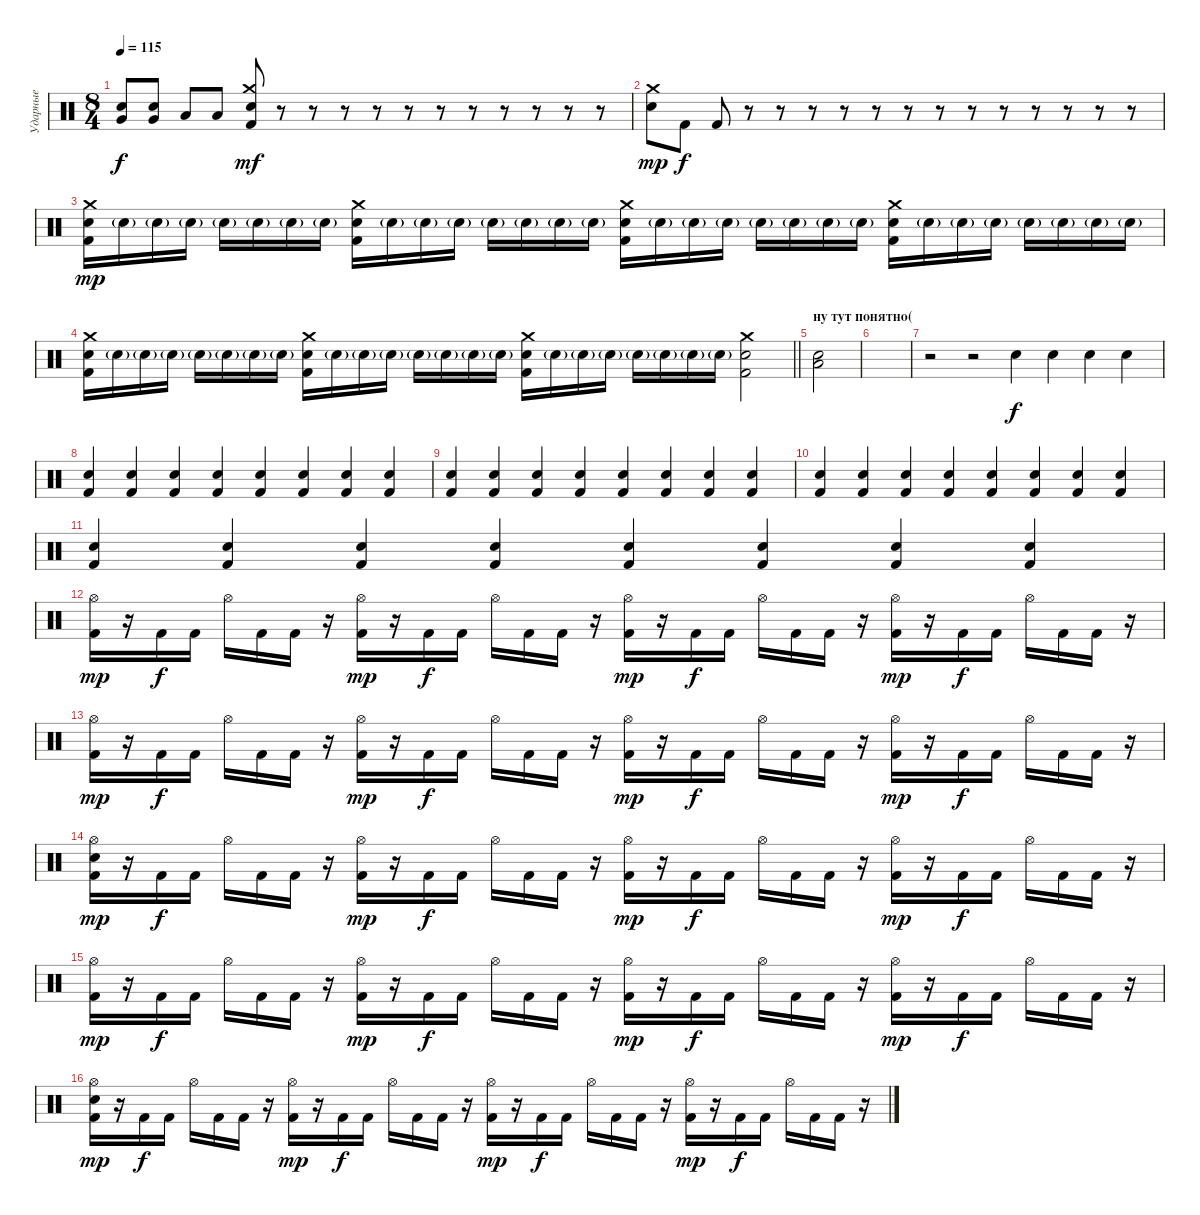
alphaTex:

\track ("Ударные" "Ударные") {instrument percussion}
\staff {score}
\articulation defaults
\ts (8 4)
\tempo 115
\clef neutral
\ks c
("Very Low Tom (hit)" "Snare (hit) 2").8{dy f} ("Very Low Tom (hit)" "Snare (hit) 2").8 "Low Floor Tom (hit)".8 "Low Floor Tom (hit)".8 ("Crash medium (hit)" "Snare (hit) 2" "Kick (hit) 2").8{dy mf} r.8 r.8 r.8 r.8 r.8 r.8 r.8 r.8 r.8 r.8 r.8 |
("Crash medium (hit)" "Snare (hit) 2").8{dy mp} "Kick (hit) 2".8{dy f} "Kick (hit) 2".8 r.8 r.8 r.8 r.8 r.8 r.8 r.8 r.8 r.8 r.8 r.8 r.8 r.8 |
("Crash medium (hit)" "Electric Snare (hit)" "Kick (hit) 2").16{dy mp} "Electric Snare (hit)"{g}.16 "Electric Snare (hit)"{g}.16 "Electric Snare (hit)"{g}.16 "Electric Snare (hit)"{g}.16 "Electric Snare (hit)"{g}.16 "Electric Snare (hit)"{g}.16 "Electric Snare (hit)"{g}.16 ("Crash medium (hit)" "Electric Snare (hit)" "Kick (hit) 2").16 "Electric Snare (hit)"{g}.16 "Electric Snare (hit)"{g}.16 "Electric Snare (hit)"{g}.16 "Electric Snare (hit)"{g}.16 "Electric Snare (hit)"{g}.16 "Electric Snare (hit)"{g}.16 "Electric Snare (hit)"{g}.16 ("Crash medium (hit)" "Electric Snare (hit)" "Kick (hit) 2").16 "Electric Snare (hit)"{g}.16 "Electric Snare (hit)"{g}.16 "Electric Snare (hit)"{g}.16 "Electric Snare (hit)"{g}.16 "Electric Snare (hit)"{g}.16 "Electric Snare (hit)"{g}.16 "Electric Snare (hit)"{g}.16 ("Crash medium (hit)" "Electric Snare (hit)" "Kick (hit) 2").16 "Electric Snare (hit)"{g}.16 "Electric Snare (hit)"{g}.16 "Electric Snare (hit)"{g}.16 "Electric Snare (hit)"{g}.16 "Electric Snare (hit)"{g}.16 "Electric Snare (hit)"{g}.16 "Electric Snare (hit)"{g}.16 |
\barLineRight lightlight
("Crash medium (hit)" "Electric Snare (hit)" "Kick (hit) 2").16 "Electric Snare (hit)"{g}.16 "Electric Snare (hit)"{g}.16 "Electric Snare (hit)"{g}.16 "Electric Snare (hit)"{g}.16 "Electric Snare (hit)"{g}.16 "Electric Snare (hit)"{g}.16 "Electric Snare (hit)"{g}.16 ("Crash medium (hit)" "Electric Snare (hit)" "Kick (hit) 2").16 "Electric Snare (hit)"{g}.16 "Electric Snare (hit)"{g}.16 "Electric Snare (hit)"{g}.16 "Electric Snare (hit)"{g}.16 "Electric Snare (hit)"{g}.16 "Electric Snare (hit)"{g}.16 "Electric Snare (hit)"{g}.16 ("Crash medium (hit)" "Electric Snare (hit)" "Kick (hit) 2").16 "Electric Snare (hit)"{g}.16 "Electric Snare (hit)"{g}.16 "Electric Snare (hit)"{g}.16 "Electric Snare (hit)"{g}.16 "Electric Snare (hit)"{g}.16 "Electric Snare (hit)"{g}.16 "Electric Snare (hit)"{g}.16 ("Crash medium (hit)" "Electric Snare (hit)" "Kick (hit) 2").2 |
\section ("" "ну тут понятно(")
("Low Floor Tom (hit)" "Electric Snare (hit)").2 |
|
r.2 r.2 "Hand Clap (hit)".4{dy f} "Hand Clap (hit)".4 "Hand Clap (hit)".4 "Hand Clap (hit)".4 |
("Hand Clap (hit)" "Kick (hit) 2").4 ("Hand Clap (hit)" "Kick (hit) 2").4 ("Hand Clap (hit)" "Kick (hit) 2").4 ("Hand Clap (hit)" "Kick (hit) 2").4 ("Hand Clap (hit)" "Kick (hit) 2").4 ("Hand Clap (hit)" "Kick (hit) 2").4 ("Hand Clap (hit)" "Kick (hit) 2").4 ("Hand Clap (hit)" "Kick (hit) 2").4 |
("Hand Clap (hit)" "Kick (hit) 2").4 ("Hand Clap (hit)" "Kick (hit) 2").4 ("Hand Clap (hit)" "Kick (hit) 2").4 ("Hand Clap (hit)" "Kick (hit) 2").4 ("Hand Clap (hit)" "Kick (hit) 2").4 ("Hand Clap (hit)" "Kick (hit) 2").4 ("Hand Clap (hit)" "Kick (hit) 2").4 ("Hand Clap (hit)" "Kick (hit) 2").4 |
("Hand Clap (hit)" "Kick (hit) 2").4 ("Hand Clap (hit)" "Kick (hit) 2").4 ("Hand Clap (hit)" "Kick (hit) 2").4 ("Hand Clap (hit)" "Kick (hit) 2").4 ("Hand Clap (hit)" "Kick (hit) 2").4 ("Hand Clap (hit)" "Kick (hit) 2").4 ("Hand Clap (hit)" "Kick (hit) 2").4 ("Hand Clap (hit)" "Kick (hit) 2").4 |
("Hand Clap (hit)" "Kick (hit) 2").4 ("Hand Clap (hit)" "Kick (hit) 2").4 ("Hand Clap (hit)" "Kick (hit) 2").4 ("Hand Clap (hit)" "Kick (hit) 2").4 ("Hand Clap (hit)" "Kick (hit) 2").4 ("Hand Clap (hit)" "Kick (hit) 2").4 ("Hand Clap (hit)" "Kick (hit) 2").4 ("Hand Clap (hit)" "Kick (hit) 2").4 |
("Hi-Hat (open)" "Kick (hit) 2").16{dy mp} r.16 "Kick (hit) 2".16{dy f} "Kick (hit) 2".16 "Hi-Hat (open)".16 "Kick (hit) 2".16 "Kick (hit) 2".16 r.16 ("Hi-Hat (open)" "Kick (hit) 2").16{dy mp} r.16 "Kick (hit) 2".16{dy f} "Kick (hit) 2".16 "Hi-Hat (open)".16 "Kick (hit) 2".16 "Kick (hit) 2".16 r.16 ("Hi-Hat (open)" "Kick (hit) 2").16{dy mp} r.16 "Kick (hit) 2".16{dy f} "Kick (hit) 2".16 "Hi-Hat (open)".16 "Kick (hit) 2".16 "Kick (hit) 2".16 r.16 ("Hi-Hat (open)" "Kick (hit) 2").16{dy mp} r.16 "Kick (hit) 2".16{dy f} "Kick (hit) 2".16 "Hi-Hat (open)".16 "Kick (hit) 2".16 "Kick (hit) 2".16 r.16 |
("Hi-Hat (open)" "Kick (hit) 2").16{dy mp} r.16 "Kick (hit) 2".16{dy f} "Kick (hit) 2".16 "Hi-Hat (open)".16 "Kick (hit) 2".16 "Kick (hit) 2".16 r.16 ("Hi-Hat (open)" "Kick (hit) 2").16{dy mp} r.16 "Kick (hit) 2".16{dy f} "Kick (hit) 2".16 "Hi-Hat (open)".16 "Kick (hit) 2".16 "Kick (hit) 2".16 r.16 ("Hi-Hat (open)" "Kick (hit) 2").16{dy mp} r.16 "Kick (hit) 2".16{dy f} "Kick (hit) 2".16 "Hi-Hat (open)".16 "Kick (hit) 2".16 "Kick (hit) 2".16 r.16 ("Hi-Hat (open)" "Kick (hit) 2").16{dy mp} r.16 "Kick (hit) 2".16{dy f} "Kick (hit) 2".16 "Hi-Hat (open)".16 "Kick (hit) 2".16 "Kick (hit) 2".16 r.16 |
("Hi-Hat (open)" "Snare (hit) 2" "Kick (hit) 2").16{dy mp} r.16 "Kick (hit) 2".16{dy f} "Kick (hit) 2".16 "Hi-Hat (open)".16 "Kick (hit) 2".16 "Kick (hit) 2".16 r.16 ("Hi-Hat (open)" "Kick (hit) 2").16{dy mp} r.16 "Kick (hit) 2".16{dy f} "Kick (hit) 2".16 "Hi-Hat (open)".16 "Kick (hit) 2".16 "Kick (hit) 2".16 r.16 ("Hi-Hat (open)" "Kick (hit) 2").16{dy mp} r.16 "Kick (hit) 2".16{dy f} "Kick (hit) 2".16 "Hi-Hat (open)".16 "Kick (hit) 2".16 "Kick (hit) 2".16 r.16 ("Hi-Hat (open)" "Kick (hit) 2").16{dy mp} r.16 "Kick (hit) 2".16{dy f} "Kick (hit) 2".16 "Hi-Hat (open)".16 "Kick (hit) 2".16 "Kick (hit) 2".16 r.16 |
("Hi-Hat (open)" "Kick (hit) 2").16{dy mp} r.16 "Kick (hit) 2".16{dy f} "Kick (hit) 2".16 "Hi-Hat (open)".16 "Kick (hit) 2".16 "Kick (hit) 2".16 r.16 ("Hi-Hat (open)" "Kick (hit) 2").16{dy mp} r.16 "Kick (hit) 2".16{dy f} "Kick (hit) 2".16 "Hi-Hat (open)".16 "Kick (hit) 2".16 "Kick (hit) 2".16 r.16 ("Hi-Hat (open)" "Kick (hit) 2").16{dy mp} r.16 "Kick (hit) 2".16{dy f} "Kick (hit) 2".16 "Hi-Hat (open)".16 "Kick (hit) 2".16 "Kick (hit) 2".16 r.16 ("Hi-Hat (open)" "Kick (hit) 2").16{dy mp} r.16 "Kick (hit) 2".16{dy f} "Kick (hit) 2".16 "Hi-Hat (open)".16 "Kick (hit) 2".16 "Kick (hit) 2".16 r.16 |
("Hi-Hat (open)" "Snare (hit) 2" "Kick (hit) 2").16{dy mp} r.16 "Kick (hit) 2".16{dy f} "Kick (hit) 2".16 "Hi-Hat (open)".16 "Kick (hit) 2".16 "Kick (hit) 2".16 r.16 ("Hi-Hat (open)" "Kick (hit) 2").16{dy mp} r.16 "Kick (hit) 2".16{dy f} "Kick (hit) 2".16 "Hi-Hat (open)".16 "Kick (hit) 2".16 "Kick (hit) 2".16 r.16 ("Hi-Hat (open)" "Kick (hit) 2").16{dy mp} r.16 "Kick (hit) 2".16{dy f} "Kick (hit) 2".16 "Hi-Hat (open)".16 "Kick (hit) 2".16 "Kick (hit) 2".16 r.16 ("Hi-Hat (open)" "Kick (hit) 2").16{dy mp} r.16 "Kick (hit) 2".16{dy f} "Kick (hit) 2".16 "Hi-Hat (open)".16 "Kick (hit) 2".16 "Kick (hit) 2".16 r.16
